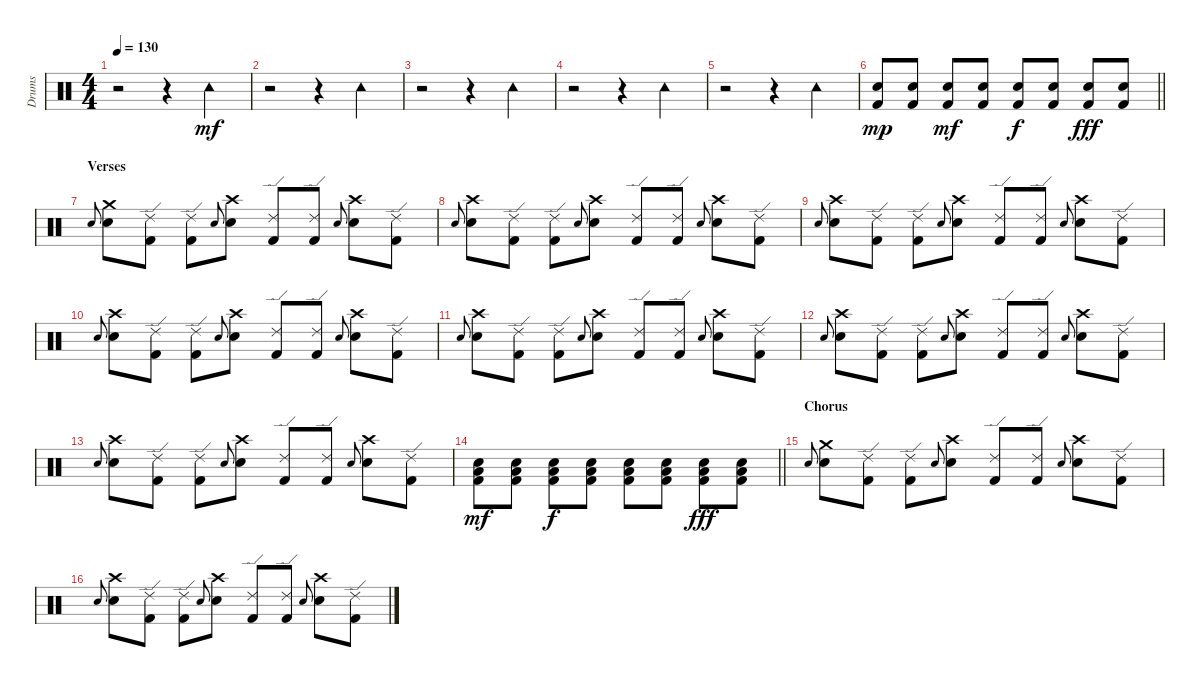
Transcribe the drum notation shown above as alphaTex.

\track ("Drums" "Drums") {instrument percussion}
\staff {score}
\articulation defaults
\ts (4 4)
\tempo 130
\clef neutral
\ks c
r.2{dy mf} r.4 "Tambourine (hit)".4 |
r.2 r.4 "Tambourine (hit)".4 |
r.2 r.4 "Tambourine (hit)".4 |
r.2 r.4 "Tambourine (hit)".4 |
r.2 r.4 "Tambourine (hit)".4 |
\barLineRight lightlight
("Electric Snare (hit)" "Kick (hit) 2").8{dy mp} ("Electric Snare (hit)" "Kick (hit) 2").8 ("Electric Snare (hit)" "Kick (hit) 2").8{dy mf} ("Electric Snare (hit)" "Kick (hit) 2").8 ("Electric Snare (hit)" "Kick (hit) 2").8{dy f} ("Electric Snare (hit)" "Kick (hit) 2").8 ("Electric Snare (hit)" "Kick (hit) 2").8{dy fff} ("Electric Snare (hit)" "Kick (hit) 2").8 |
\section ("" "Verses")
"Electric Snare (hit)".8{gr onbeat} ("Crash medium (hit)" "Electric Snare (hit)").8 ("Ride (edge) 2" "Kick (hit) 2").8 ("Ride (edge) 2" "Kick (hit) 2").8 "Electric Snare (hit)".8{gr onbeat} ("Crash high (hit)" "Electric Snare (hit)").8 ("Ride (edge) 2" "Kick (hit) 2").8 ("Ride (edge) 2" "Kick (hit) 2").8 "Electric Snare (hit)".8{gr onbeat} ("Crash high (hit)" "Electric Snare (hit)").8 ("Ride (edge) 2" "Kick (hit) 2").8 |
"Electric Snare (hit)".8{gr onbeat} ("Crash high (hit)" "Electric Snare (hit)").8 ("Ride (edge) 2" "Kick (hit) 2").8 ("Ride (edge) 2" "Kick (hit) 2").8 "Electric Snare (hit)".8{gr onbeat} ("Crash high (hit)" "Electric Snare (hit)").8 ("Ride (edge) 2" "Kick (hit) 2").8 ("Ride (edge) 2" "Kick (hit) 2").8 "Electric Snare (hit)".8{gr onbeat} ("Crash high (hit)" "Electric Snare (hit)").8 ("Ride (edge) 2" "Kick (hit) 2").8 |
"Electric Snare (hit)".8{gr onbeat} ("Crash high (hit)" "Electric Snare (hit)").8 ("Ride (edge) 2" "Kick (hit) 2").8 ("Ride (edge) 2" "Kick (hit) 2").8 "Electric Snare (hit)".8{gr onbeat} ("Crash high (hit)" "Electric Snare (hit)").8 ("Ride (edge) 2" "Kick (hit) 2").8 ("Ride (edge) 2" "Kick (hit) 2").8 "Electric Snare (hit)".8{gr onbeat} ("Crash high (hit)" "Electric Snare (hit)").8 ("Ride (edge) 2" "Kick (hit) 2").8 |
"Electric Snare (hit)".8{gr onbeat} ("Crash high (hit)" "Electric Snare (hit)").8 ("Ride (edge) 2" "Kick (hit) 2").8 ("Ride (edge) 2" "Kick (hit) 2").8 "Electric Snare (hit)".8{gr onbeat} ("Crash high (hit)" "Electric Snare (hit)").8 ("Ride (edge) 2" "Kick (hit) 2").8 ("Ride (edge) 2" "Kick (hit) 2").8 "Electric Snare (hit)".8{gr onbeat} ("Crash high (hit)" "Electric Snare (hit)").8 ("Ride (edge) 2" "Kick (hit) 2").8 |
"Electric Snare (hit)".8{gr onbeat} ("Crash high (hit)" "Electric Snare (hit)").8 ("Ride (edge) 2" "Kick (hit) 2").8 ("Ride (edge) 2" "Kick (hit) 2").8 "Electric Snare (hit)".8{gr onbeat} ("Crash high (hit)" "Electric Snare (hit)").8 ("Ride (edge) 2" "Kick (hit) 2").8 ("Ride (edge) 2" "Kick (hit) 2").8 "Electric Snare (hit)".8{gr onbeat} ("Crash high (hit)" "Electric Snare (hit)").8 ("Ride (edge) 2" "Kick (hit) 2").8 |
"Electric Snare (hit)".8{gr onbeat} ("Crash high (hit)" "Electric Snare (hit)").8 ("Ride (edge) 2" "Kick (hit) 2").8 ("Ride (edge) 2" "Kick (hit) 2").8 "Electric Snare (hit)".8{gr onbeat} ("Crash high (hit)" "Electric Snare (hit)").8 ("Ride (edge) 2" "Kick (hit) 2").8 ("Ride (edge) 2" "Kick (hit) 2").8 "Electric Snare (hit)".8{gr onbeat} ("Crash high (hit)" "Electric Snare (hit)").8 ("Ride (edge) 2" "Kick (hit) 2").8 |
"Electric Snare (hit)".8{gr onbeat} ("Crash high (hit)" "Electric Snare (hit)").8 ("Ride (edge) 2" "Kick (hit) 2").8 ("Ride (edge) 2" "Kick (hit) 2").8 "Electric Snare (hit)".8{gr onbeat} ("Crash high (hit)" "Electric Snare (hit)").8 ("Ride (edge) 2" "Kick (hit) 2").8 ("Ride (edge) 2" "Kick (hit) 2").8 "Electric Snare (hit)".8{gr onbeat} ("Crash high (hit)" "Electric Snare (hit)").8 ("Ride (edge) 2" "Kick (hit) 2").8 |
\barLineRight lightlight
("Low Floor Tom (hit)" "Electric Snare (hit)" "Kick (hit) 2").8{dy mf} ("Low Floor Tom (hit)" "Electric Snare (hit)" "Kick (hit) 2").8 ("Low Floor Tom (hit)" "Electric Snare (hit)" "Kick (hit) 2").8{dy f} ("Low Floor Tom (hit)" "Electric Snare (hit)" "Kick (hit) 2").8 ("Low Floor Tom (hit)" "Electric Snare (hit)" "Kick (hit) 2").8 ("Low Floor Tom (hit)" "Electric Snare (hit)" "Kick (hit) 2").8 ("Low Floor Tom (hit)" "Electric Snare (hit)" "Kick (hit) 2").8{dy fff} ("Low Floor Tom (hit)" "Electric Snare (hit)" "Kick (hit) 2").8 |
\section ("" "Chorus")
"Electric Snare (hit)".8{gr onbeat} ("Crash medium (hit)" "Electric Snare (hit)").8 ("Ride (edge) 2" "Kick (hit) 2").8 ("Ride (edge) 2" "Kick (hit) 2").8 "Electric Snare (hit)".8{gr onbeat} ("Crash high (hit)" "Electric Snare (hit)").8 ("Ride (edge) 2" "Kick (hit) 2").8 ("Ride (edge) 2" "Kick (hit) 2").8 "Electric Snare (hit)".8{gr onbeat} ("Crash high (hit)" "Electric Snare (hit)").8 ("Ride (edge) 2" "Kick (hit) 2").8 |
"Electric Snare (hit)".8{gr onbeat} ("Crash high (hit)" "Electric Snare (hit)").8 ("Ride (edge) 2" "Kick (hit) 2").8 ("Ride (edge) 2" "Kick (hit) 2").8 "Electric Snare (hit)".8{gr onbeat} ("Crash high (hit)" "Electric Snare (hit)").8 ("Ride (edge) 2" "Kick (hit) 2").8 ("Ride (edge) 2" "Kick (hit) 2").8 "Electric Snare (hit)".8{gr onbeat} ("Crash high (hit)" "Electric Snare (hit)").8 ("Ride (edge) 2" "Kick (hit) 2").8
